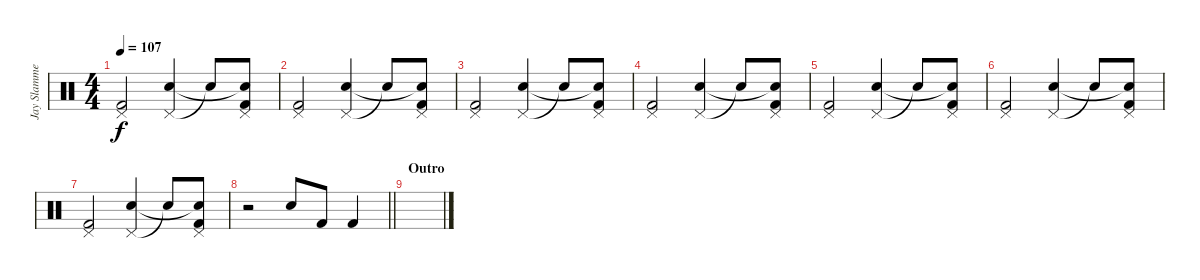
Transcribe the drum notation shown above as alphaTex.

\track ("Jay Slammer" "Jay Slamme") {instrument percussion}
\staff {score}
\articulation defaults
\ts (4 4)
\tempo 107
\clef neutral
\ks c
("Pedal Hi-Hat (hit)" "Kick (hit) 2").2{dy f} ("Pedal Hi-Hat (hit)" "Electric Snare (hit)").4 "Snare (hit)"{t}.8 ("Pedal Hi-Hat (hit)" "Snare (hit)"{t} "Kick (hit) 2").8 |
("Pedal Hi-Hat (hit)" "Kick (hit) 2").2 ("Pedal Hi-Hat (hit)" "Electric Snare (hit)").4 "Snare (hit)"{t}.8 ("Pedal Hi-Hat (hit)" "Snare (hit)"{t} "Kick (hit) 2").8 |
("Pedal Hi-Hat (hit)" "Kick (hit) 2").2 ("Pedal Hi-Hat (hit)" "Electric Snare (hit)").4 "Snare (hit)"{t}.8 ("Pedal Hi-Hat (hit)" "Snare (hit)"{t} "Kick (hit) 2").8 |
("Pedal Hi-Hat (hit)" "Kick (hit) 2").2 ("Pedal Hi-Hat (hit)" "Electric Snare (hit)").4 "Snare (hit)"{t}.8 ("Pedal Hi-Hat (hit)" "Snare (hit)"{t} "Kick (hit) 2").8 |
("Pedal Hi-Hat (hit)" "Kick (hit) 2").2 ("Pedal Hi-Hat (hit)" "Electric Snare (hit)").4 "Snare (hit)"{t}.8 ("Pedal Hi-Hat (hit)" "Snare (hit)"{t} "Kick (hit) 2").8 |
("Pedal Hi-Hat (hit)" "Kick (hit) 2").2 ("Pedal Hi-Hat (hit)" "Electric Snare (hit)").4 "Snare (hit)"{t}.8 ("Pedal Hi-Hat (hit)" "Snare (hit)"{t} "Kick (hit) 2").8 |
("Pedal Hi-Hat (hit)" "Kick (hit) 2").2 ("Pedal Hi-Hat (hit)" "Electric Snare (hit)").4 "Snare (hit)"{t}.8 ("Pedal Hi-Hat (hit)" "Snare (hit)"{t} "Kick (hit) 2").8 |
\barLineRight lightlight
r.2 "Electric Snare (hit)".8 "Kick (hit) 2".8 "Kick (hit) 2".4 |
\section ("" "Outro")
